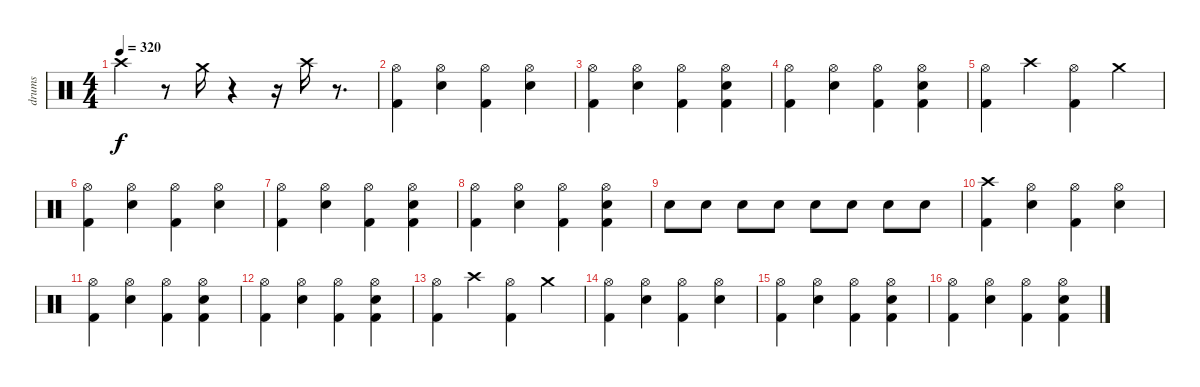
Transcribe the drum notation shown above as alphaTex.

\track ("drums" "drums") {instrument percussion}
\staff {score}
\articulation defaults
\ts (4 4)
\tempo 320
\clef neutral
\ks c "Crash high (hit)".4{dy f}
r.8 "Crash medium (hit)".16 r.4 r.16 "Crash high (hit)".16 r.8{d} |
("Hi-Hat (open)" "Kick (hit) 2").4 ("Hi-Hat (open)" "Snare (hit) 2").4 ("Hi-Hat (open)" "Kick (hit) 2").4 ("Hi-Hat (open)" "Snare (hit) 2").4 |
("Hi-Hat (open)" "Kick (hit) 2").4 ("Hi-Hat (open)" "Snare (hit) 2").4 ("Hi-Hat (open)" "Kick (hit) 2").4 ("Hi-Hat (open)" "Snare (hit) 2" "Kick (hit) 2").4 |
("Hi-Hat (open)" "Kick (hit) 2").4 ("Hi-Hat (open)" "Snare (hit) 2").4 ("Hi-Hat (open)" "Kick (hit) 2").4 ("Hi-Hat (open)" "Snare (hit) 2" "Kick (hit) 2").4 |
("Hi-Hat (open)" "Kick (hit) 2").4 "Crash high (hit)".4 ("Hi-Hat (open)" "Kick (hit) 2").4 "Crash medium (hit)".4 |
("Hi-Hat (open)" "Kick (hit) 2").4 ("Hi-Hat (open)" "Snare (hit) 2").4 ("Hi-Hat (open)" "Kick (hit) 2").4 ("Hi-Hat (open)" "Snare (hit) 2").4 |
("Hi-Hat (open)" "Kick (hit) 2").4 ("Hi-Hat (open)" "Snare (hit) 2").4 ("Hi-Hat (open)" "Kick (hit) 2").4 ("Hi-Hat (open)" "Snare (hit) 2" "Kick (hit) 2").4 |
("Hi-Hat (open)" "Kick (hit) 2").4 ("Hi-Hat (open)" "Snare (hit) 2").4 ("Hi-Hat (open)" "Kick (hit) 2").4 ("Hi-Hat (open)" "Snare (hit) 2" "Kick (hit) 2").4 |
"Snare (hit) 2".8 "Snare (hit) 2".8 "Snare (hit) 2".8 "Snare (hit) 2".8 "Snare (hit) 2".8 "Snare (hit) 2".8 "Snare (hit) 2".8 "Snare (hit) 2".8 |
("Crash high (hit)" "Kick (hit) 2").4 ("Hi-Hat (open)" "Snare (hit) 2").4 ("Hi-Hat (open)" "Kick (hit) 2").4 ("Hi-Hat (open)" "Snare (hit) 2").4 |
("Hi-Hat (open)" "Kick (hit) 2").4 ("Hi-Hat (open)" "Snare (hit) 2").4 ("Hi-Hat (open)" "Kick (hit) 2").4 ("Hi-Hat (open)" "Snare (hit) 2" "Kick (hit) 2").4 |
("Hi-Hat (open)" "Kick (hit) 2").4 ("Hi-Hat (open)" "Snare (hit) 2").4 ("Hi-Hat (open)" "Kick (hit) 2").4 ("Hi-Hat (open)" "Snare (hit) 2" "Kick (hit) 2").4 |
("Hi-Hat (open)" "Kick (hit) 2").4 "Crash high (hit)".4 ("Hi-Hat (open)" "Kick (hit) 2").4 "Crash medium (hit)".4 |
("Hi-Hat (open)" "Kick (hit) 2").4 ("Hi-Hat (open)" "Snare (hit) 2").4 ("Hi-Hat (open)" "Kick (hit) 2").4 ("Hi-Hat (open)" "Snare (hit) 2").4 |
("Hi-Hat (open)" "Kick (hit) 2").4 ("Hi-Hat (open)" "Snare (hit) 2").4 ("Hi-Hat (open)" "Kick (hit) 2").4 ("Hi-Hat (open)" "Snare (hit) 2" "Kick (hit) 2").4 |
("Hi-Hat (open)" "Kick (hit) 2").4 ("Hi-Hat (open)" "Snare (hit) 2").4 ("Hi-Hat (open)" "Kick (hit) 2").4 ("Hi-Hat (open)" "Snare (hit) 2" "Kick (hit) 2").4
